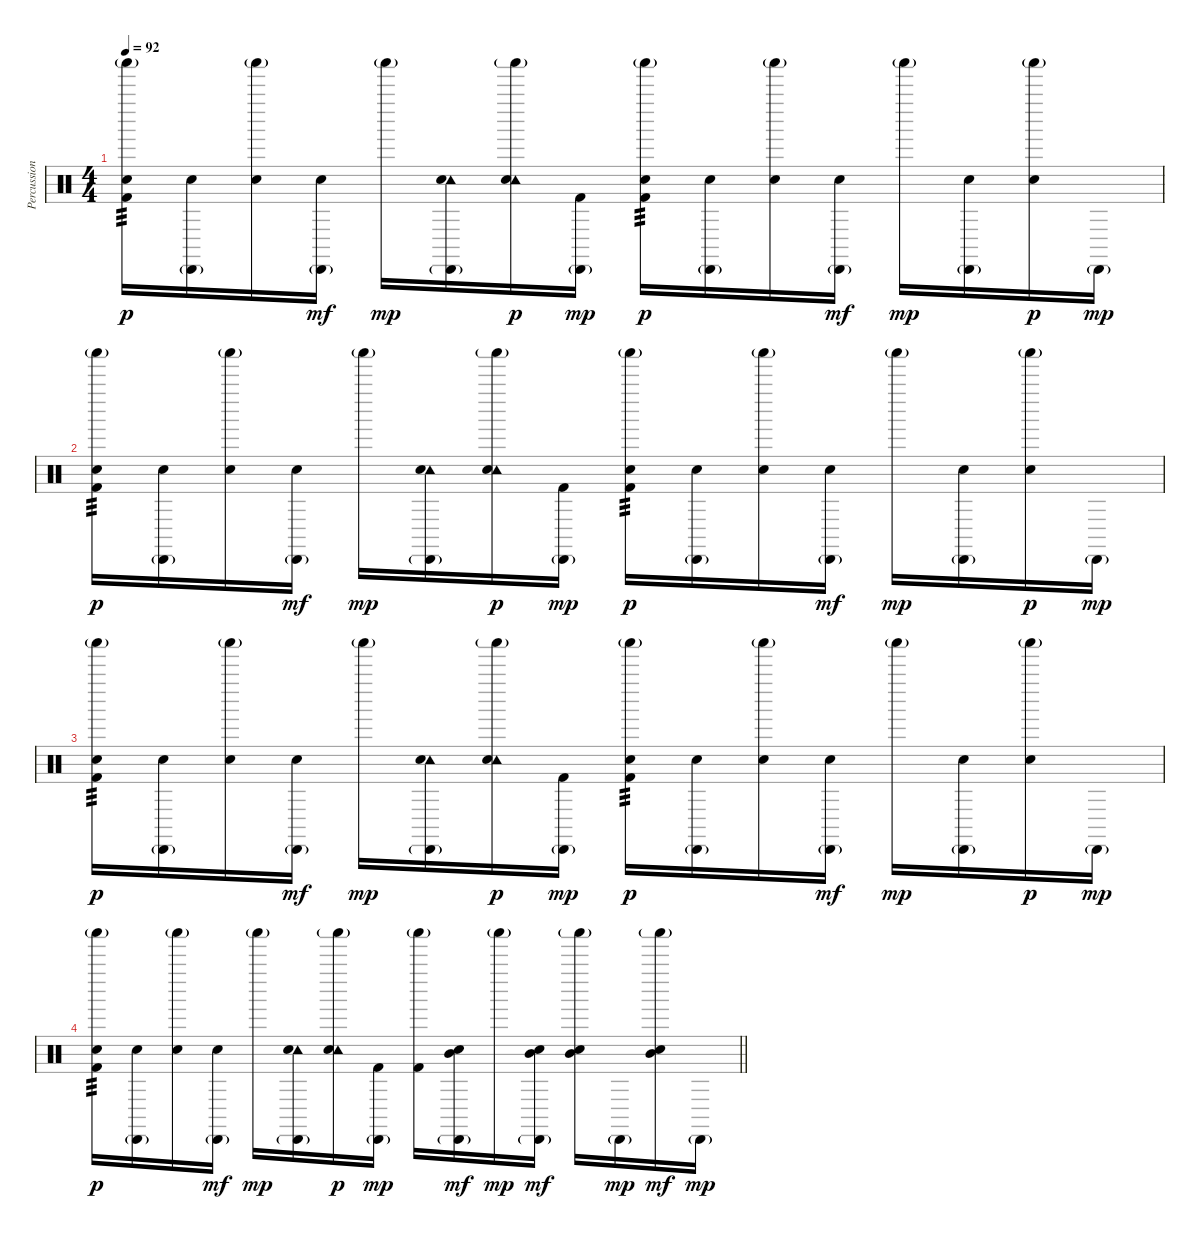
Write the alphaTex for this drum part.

\track ("Percussion2" "Percussion") {instrument percussion}
\staff {score}
\articulation defaults
\ts (4 4)
\tempo 92
\clef neutral
\ks c
("Shaker (hit)"{g} "Snare (hit) 2" "Kick (hit) 2").16{tp 3 dy p} ("Cabasa (hit)"{g} "Snare (hit) 2").16 ("Shaker (hit)"{g} "Snare (hit) 2").16 ("Cabasa (hit)"{g} "Snare (hit) 2").16{dy mf} "Shaker (hit)"{g}.16{dy mp} ("Cabasa (hit)"{g} "Tambourine (hit)" "Snare (hit) 2").16 ("Shaker (hit)"{g} "Tambourine (hit)" "Snare (hit) 2").16{dy p} ("Cabasa (hit)"{g} "Kick (hit) 2").16{dy mp} ("Shaker (hit)"{g} "Snare (hit) 2" "Kick (hit) 2").16{tp 3 dy p} ("Cabasa (hit)"{g} "Snare (hit) 2").16 ("Shaker (hit)"{g} "Snare (hit) 2").16 ("Cabasa (hit)"{g} "Snare (hit) 2").16{dy mf} "Shaker (hit)"{g}.16{dy mp} ("Cabasa (hit)"{g} "Snare (hit) 2").16 ("Shaker (hit)"{g} "Snare (hit) 2").16{dy p} "Cabasa (hit)"{g}.16{dy mp} |
("Shaker (hit)"{g} "Snare (hit) 2" "Kick (hit) 2").16{tp 3 dy p} ("Cabasa (hit)"{g} "Snare (hit) 2").16 ("Shaker (hit)"{g} "Snare (hit) 2").16 ("Cabasa (hit)"{g} "Snare (hit) 2").16{dy mf} "Shaker (hit)"{g}.16{dy mp} ("Cabasa (hit)"{g} "Tambourine (hit)" "Snare (hit) 2").16 ("Shaker (hit)"{g} "Tambourine (hit)" "Snare (hit) 2").16{dy p} ("Cabasa (hit)"{g} "Kick (hit) 2").16{dy mp} ("Shaker (hit)"{g} "Snare (hit) 2" "Kick (hit) 2").16{tp 3 dy p} ("Cabasa (hit)"{g} "Snare (hit) 2").16 ("Shaker (hit)"{g} "Snare (hit) 2").16 ("Cabasa (hit)"{g} "Snare (hit) 2").16{dy mf} "Shaker (hit)"{g}.16{dy mp} ("Cabasa (hit)"{g} "Snare (hit) 2").16 ("Shaker (hit)"{g} "Snare (hit) 2").16{dy p} "Cabasa (hit)"{g}.16{dy mp} |
("Shaker (hit)"{g} "Snare (hit) 2" "Kick (hit) 2").16{tp 3 dy p} ("Cabasa (hit)"{g} "Snare (hit) 2").16 ("Shaker (hit)"{g} "Snare (hit) 2").16 ("Cabasa (hit)"{g} "Snare (hit) 2").16{dy mf} "Shaker (hit)"{g}.16{dy mp} ("Cabasa (hit)"{g} "Tambourine (hit)" "Snare (hit) 2").16 ("Shaker (hit)"{g} "Tambourine (hit)" "Snare (hit) 2").16{dy p} ("Cabasa (hit)"{g} "Kick (hit) 2").16{dy mp} ("Shaker (hit)"{g} "Snare (hit) 2" "Kick (hit) 2").16{tp 3 dy p} ("Cabasa (hit)"{g} "Snare (hit) 2").16 ("Shaker (hit)"{g} "Snare (hit) 2").16 ("Cabasa (hit)"{g} "Snare (hit) 2").16{dy mf} "Shaker (hit)"{g}.16{dy mp} ("Cabasa (hit)"{g} "Snare (hit) 2").16 ("Shaker (hit)"{g} "Snare (hit) 2").16{dy p} "Cabasa (hit)"{g}.16{dy mp} |
\barLineRight lightlight
("Shaker (hit)"{g} "Snare (hit) 2" "Kick (hit) 2").16{tp 3 dy p} ("Cabasa (hit)"{g} "Snare (hit) 2").16 ("Shaker (hit)"{g} "Snare (hit) 2").16 ("Cabasa (hit)"{g} "Snare (hit) 2").16{dy mf} "Shaker (hit)"{g}.16{dy mp} ("Cabasa (hit)"{g} "Tambourine (hit)" "Snare (hit) 2").16 ("Shaker (hit)"{g} "Tambourine (hit)" "Snare (hit) 2").16{dy p} ("Cabasa (hit)"{g} "Kick (hit) 2").16{dy mp} ("Shaker (hit)"{g} "Kick (hit) 2").16 ("Cabasa (hit)"{g} "Mid Tom (hit)" "Snare (hit) 2").16{dy mf} "Shaker (hit)"{g}.16{dy mp} ("Cabasa (hit)"{g} "Mid Tom (hit)" "Snare (hit) 2").16{dy mf} ("Shaker (hit)"{g} "Mid Tom (hit)" "Snare (hit) 2").16 "Cabasa (hit)"{g}.16{dy mp} ("Shaker (hit)"{g} "Mid Tom (hit)" "Snare (hit) 2").16{dy mf} "Cabasa (hit)"{g}.16{dy mp}
